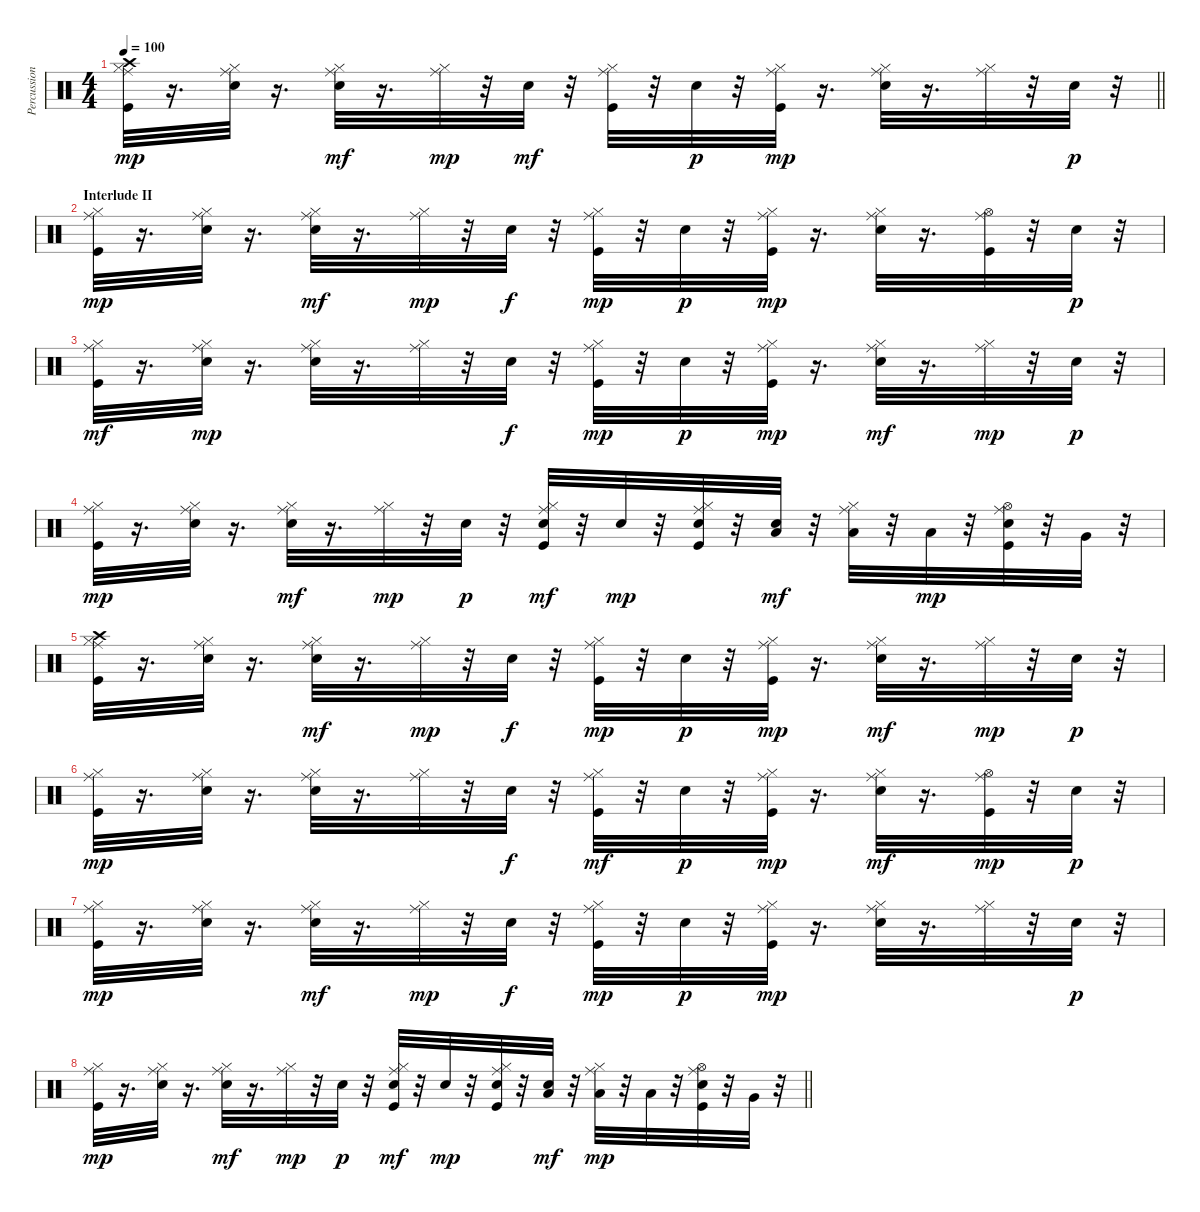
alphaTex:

\track ("Percussions" "Percussion") {instrument percussion}
\staff {score}
\articulation defaults
\ts (4 4)
\tempo 100
\clef neutral
\barLineRight lightlight
\ks c
("Kick (hit)" "Hi-Hat (closed)" "Crash high (hit)" "Ride (middle)").32{dy mp} r.16{d} ("Electric Snare (hit)" "Hi-Hat (closed)" "Ride (middle)").32 r.16{d} ("Electric Snare (hit)" "Hi-Hat (closed)" "Ride (middle)").32{dy mf} r.16{d} ("Hi-Hat (closed)" "Ride (middle)").32{dy mp} r.32 "Electric Snare (hit)".32{dy mf} r.32 ("Kick (hit)" "Hi-Hat (closed)" "Ride (middle)").32 r.32 "Electric Snare (hit)".32{dy p} r.32 ("Kick (hit)" "Hi-Hat (closed)" "Ride (middle)").32{dy mp} r.16{d} ("Electric Snare (hit)" "Hi-Hat (closed)" "Ride (middle)").32 r.16{d} ("Hi-Hat (closed)" "Ride (middle)").32 r.32 "Electric Snare (hit)".32{dy p} r.32 |
\section ("" "Interlude II")
("Kick (hit)" "Hi-Hat (closed)" "Ride (middle)").32{dy mp} r.16{d} ("Electric Snare (hit)" "Hi-Hat (closed)" "Ride (middle)").32 r.16{d} ("Electric Snare (hit)" "Hi-Hat (closed)" "Ride (middle)").32{dy mf} r.16{d} ("Hi-Hat (closed)" "Ride (middle)").32{dy mp} r.32 "Electric Snare (hit)".32{dy f} r.32 ("Kick (hit)" "Hi-Hat (closed)" "Ride (middle)").32{dy mp} r.32 "Electric Snare (hit)".32{dy p} r.32 ("Kick (hit)" "Hi-Hat (closed)" "Ride (middle)").32{dy mp} r.16{d} ("Electric Snare (hit)" "Hi-Hat (closed)" "Ride (middle)").32 r.16{d} ("Kick (hit)" "Hi-Hat (open)" "Ride (middle)").32 r.32 "Electric Snare (hit)".32{dy p} r.32 |
("Kick (hit)" "Hi-Hat (closed)" "Ride (middle)").32{dy mf} r.16{d} ("Electric Snare (hit)" "Hi-Hat (closed)" "Ride (middle)").32{dy mp} r.16{d} ("Electric Snare (hit)" "Hi-Hat (closed)" "Ride (middle)").32 r.16{d} ("Hi-Hat (closed)" "Ride (middle)").32 r.32 "Electric Snare (hit)".32{dy f} r.32 ("Kick (hit)" "Hi-Hat (closed)" "Ride (middle)").32{dy mp} r.32 "Electric Snare (hit)".32{dy p} r.32 ("Kick (hit)" "Hi-Hat (closed)" "Ride (middle)").32{dy mp} r.16{d} ("Electric Snare (hit)" "Hi-Hat (closed)" "Ride (middle)").32{dy mf} r.16{d} ("Hi-Hat (closed)" "Ride (middle)").32{dy mp} r.32 "Electric Snare (hit)".32{dy p} r.32 |
("Kick (hit)" "Hi-Hat (closed)" "Ride (middle)").32{dy mp} r.16{d} ("Electric Snare (hit)" "Hi-Hat (closed)" "Ride (middle)").32 r.16{d} ("Electric Snare (hit)" "Hi-Hat (closed)" "Ride (middle)").32{dy mf} r.16{d} ("Hi-Hat (closed)" "Ride (middle)").32{dy mp} r.32 "Electric Snare (hit)".32{dy p} r.32 ("Kick (hit)" "Electric Snare (hit)" "Hi-Hat (closed)" "Ride (middle)").32{dy mf} r.32 "Electric Snare (hit)".32{dy mp} r.32 ("Kick (hit)" "Electric Snare (hit)" "Hi-Hat (closed)" "Ride (middle)").32 r.32 ("Electric Snare (hit)" "Low Tom (hit)").32{dy mf} r.32 ("Hi-Hat (closed)" "Low Tom (hit)" "Ride (middle)").32 r.32 "Low Tom (hit)".32{dy mp} r.32 ("Kick (hit)" "Electric Snare (hit)" "Hi-Hat (open)" "Ride (middle)").32 r.32 "Very Low Tom (hit)".32 r.32 |
("Kick (hit)" "Hi-Hat (closed)" "Crash high (hit)" "Ride (middle)").32 r.16{d} ("Electric Snare (hit)" "Hi-Hat (closed)" "Ride (middle)").32 r.16{d} ("Electric Snare (hit)" "Hi-Hat (closed)" "Ride (middle)").32{dy mf} r.16{d} ("Hi-Hat (closed)" "Ride (middle)").32{dy mp} r.32 "Electric Snare (hit)".32{dy f} r.32 ("Kick (hit)" "Hi-Hat (closed)" "Ride (middle)").32{dy mp} r.32 "Electric Snare (hit)".32{dy p} r.32 ("Kick (hit)" "Hi-Hat (closed)" "Ride (middle)").32{dy mp} r.16{d} ("Electric Snare (hit)" "Hi-Hat (closed)" "Ride (middle)").32{dy mf} r.16{d} ("Hi-Hat (closed)" "Ride (middle)").32{dy mp} r.32 "Electric Snare (hit)".32{dy p} r.32 |
("Kick (hit)" "Hi-Hat (closed)" "Ride (middle)").32{dy mp} r.16{d} ("Electric Snare (hit)" "Hi-Hat (closed)" "Ride (middle)").32 r.16{d} ("Electric Snare (hit)" "Hi-Hat (closed)" "Ride (middle)").32 r.16{d} ("Hi-Hat (closed)" "Ride (middle)").32 r.32 "Electric Snare (hit)".32{dy f} r.32 ("Kick (hit)" "Hi-Hat (closed)" "Ride (middle)").32{dy mf} r.32 "Electric Snare (hit)".32{dy p} r.32 ("Kick (hit)" "Hi-Hat (closed)" "Ride (middle)").32{dy mp} r.16{d} ("Electric Snare (hit)" "Hi-Hat (closed)" "Ride (middle)").32{dy mf} r.16{d} ("Kick (hit)" "Hi-Hat (open)" "Ride (middle)").32{dy mp} r.32 "Electric Snare (hit)".32{dy p} r.32 |
("Kick (hit)" "Hi-Hat (closed)" "Ride (middle)").32{dy mp} r.16{d} ("Electric Snare (hit)" "Hi-Hat (closed)" "Ride (middle)").32 r.16{d} ("Electric Snare (hit)" "Hi-Hat (closed)" "Ride (middle)").32{dy mf} r.16{d} ("Hi-Hat (closed)" "Ride (middle)").32{dy mp} r.32 "Electric Snare (hit)".32{dy f} r.32 ("Kick (hit)" "Hi-Hat (closed)" "Ride (middle)").32{dy mp} r.32 "Electric Snare (hit)".32{dy p} r.32 ("Kick (hit)" "Hi-Hat (closed)" "Ride (middle)").32{dy mp} r.16{d} ("Electric Snare (hit)" "Hi-Hat (closed)" "Ride (middle)").32 r.16{d} ("Hi-Hat (closed)" "Ride (middle)").32 r.32 "Electric Snare (hit)".32{dy p} r.32 |
\barLineRight lightlight
("Kick (hit)" "Hi-Hat (closed)" "Ride (middle)").32{dy mp} r.16{d} ("Electric Snare (hit)" "Hi-Hat (closed)" "Ride (middle)").32 r.16{d} ("Electric Snare (hit)" "Hi-Hat (closed)" "Ride (middle)").32{dy mf} r.16{d} ("Hi-Hat (closed)" "Ride (middle)").32{dy mp} r.32 "Electric Snare (hit)".32{dy p} r.32 ("Kick (hit)" "Electric Snare (hit)" "Hi-Hat (closed)" "Ride (middle)").32{dy mf} r.32 "Electric Snare (hit)".32{dy mp} r.32 ("Kick (hit)" "Electric Snare (hit)" "Hi-Hat (closed)" "Ride (middle)").32 r.32 ("Electric Snare (hit)" "Low Tom (hit)").32{dy mf} r.32 ("Hi-Hat (closed)" "Low Tom (hit)" "Ride (middle)").32{dy mp} r.32 "Low Tom (hit)".32 r.32 ("Kick (hit)" "Electric Snare (hit)" "Hi-Hat (open)" "Ride (middle)").32 r.32 "Very Low Tom (hit)".32 r.32
